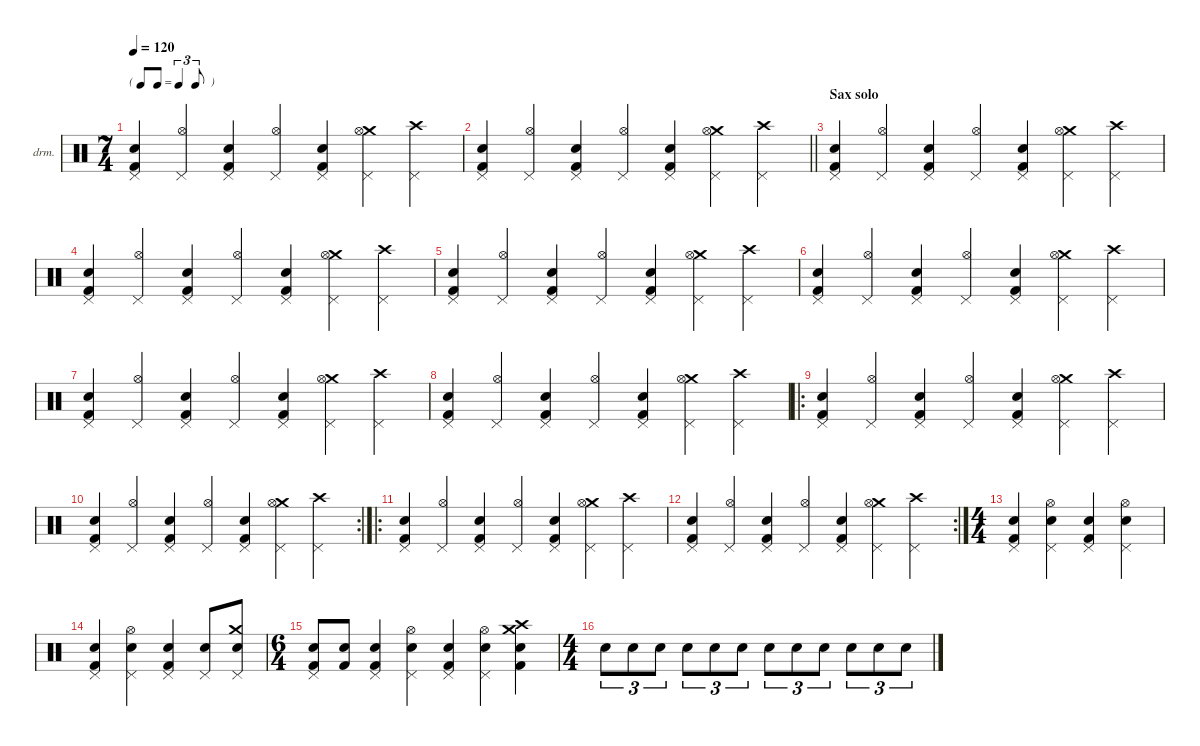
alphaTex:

\defaultSystemsLayout 4
\hideDynamics
\bracketExtendMode nobrackets
\firstSystemTrackNameOrientation horizontal
\otherSystemsTrackNameOrientation horizontal
\track ("Percussions" "drm.") {instrument percussion}
\staff {score}
\articulation defaults
\ts (7 4)
\beaming (8 6 4 4)
\tf triplet8th
\tempo 120
\clef neutral
\ks c
("Kick (hit) 2" "Snare (hit) 2" "Pedal Hi-Hat (hit)").4{dy f beam Up} ("Hi-Hat (open)" "Pedal Hi-Hat (hit)").4{beam Up} ("Kick (hit) 2" "Snare (hit) 2" "Pedal Hi-Hat (hit)").4{beam Up} ("Hi-Hat (open)" "Pedal Hi-Hat (hit)").4{beam Up} ("Kick (hit) 2" "Snare (hit) 2" "Pedal Hi-Hat (hit)").4{beam Up} ("Crash medium (hit)" "Hi-Hat (open)" "Pedal Hi-Hat (hit)").4{beam Down} ("Crash high (hit)" "Pedal Hi-Hat (hit)").4{beam Down} |
\barLineRight lightlight
("Kick (hit) 2" "Snare (hit) 2" "Pedal Hi-Hat (hit)").4{beam Up} ("Hi-Hat (open)" "Pedal Hi-Hat (hit)").4{beam Up} ("Kick (hit) 2" "Snare (hit) 2" "Pedal Hi-Hat (hit)").4{beam Up} ("Hi-Hat (open)" "Pedal Hi-Hat (hit)").4{beam Up} ("Kick (hit) 2" "Snare (hit) 2" "Pedal Hi-Hat (hit)").4{beam Up} ("Crash medium (hit)" "Hi-Hat (open)" "Pedal Hi-Hat (hit)").4{beam Down} ("Crash high (hit)" "Pedal Hi-Hat (hit)").4{beam Down} |
\section ("" "Sax solo")
("Kick (hit) 2" "Snare (hit) 2" "Pedal Hi-Hat (hit)").4{beam Up} ("Hi-Hat (open)" "Pedal Hi-Hat (hit)").4{beam Up} ("Kick (hit) 2" "Snare (hit) 2" "Pedal Hi-Hat (hit)").4{beam Up} ("Hi-Hat (open)" "Pedal Hi-Hat (hit)").4{beam Up} ("Kick (hit) 2" "Snare (hit) 2" "Pedal Hi-Hat (hit)").4{beam Up} ("Crash medium (hit)" "Hi-Hat (open)" "Pedal Hi-Hat (hit)").4{beam Down} ("Crash high (hit)" "Pedal Hi-Hat (hit)").4{beam Down} |
("Kick (hit) 2" "Snare (hit) 2" "Pedal Hi-Hat (hit)").4{beam Up} ("Hi-Hat (open)" "Pedal Hi-Hat (hit)").4{beam Up} ("Kick (hit) 2" "Snare (hit) 2" "Pedal Hi-Hat (hit)").4{beam Up} ("Hi-Hat (open)" "Pedal Hi-Hat (hit)").4{beam Up} ("Kick (hit) 2" "Snare (hit) 2" "Pedal Hi-Hat (hit)").4{beam Up} ("Crash medium (hit)" "Hi-Hat (open)" "Pedal Hi-Hat (hit)").4{beam Down} ("Crash high (hit)" "Pedal Hi-Hat (hit)").4{beam Down} |
("Kick (hit) 2" "Snare (hit) 2" "Pedal Hi-Hat (hit)").4{beam Up} ("Hi-Hat (open)" "Pedal Hi-Hat (hit)").4{beam Up} ("Kick (hit) 2" "Snare (hit) 2" "Pedal Hi-Hat (hit)").4{beam Up} ("Hi-Hat (open)" "Pedal Hi-Hat (hit)").4{beam Up} ("Kick (hit) 2" "Snare (hit) 2" "Pedal Hi-Hat (hit)").4{beam Up} ("Crash medium (hit)" "Hi-Hat (open)" "Pedal Hi-Hat (hit)").4{beam Down} ("Crash high (hit)" "Pedal Hi-Hat (hit)").4{beam Down} |
("Kick (hit) 2" "Snare (hit) 2" "Pedal Hi-Hat (hit)").4{beam Up} ("Hi-Hat (open)" "Pedal Hi-Hat (hit)").4{beam Up} ("Kick (hit) 2" "Snare (hit) 2" "Pedal Hi-Hat (hit)").4{beam Up} ("Hi-Hat (open)" "Pedal Hi-Hat (hit)").4{beam Up} ("Kick (hit) 2" "Snare (hit) 2" "Pedal Hi-Hat (hit)").4{beam Up} ("Crash medium (hit)" "Hi-Hat (open)" "Pedal Hi-Hat (hit)").4{beam Down} ("Crash high (hit)" "Pedal Hi-Hat (hit)").4{beam Down} |
("Kick (hit) 2" "Snare (hit) 2" "Pedal Hi-Hat (hit)").4{beam Up} ("Hi-Hat (open)" "Pedal Hi-Hat (hit)").4{beam Up} ("Kick (hit) 2" "Snare (hit) 2" "Pedal Hi-Hat (hit)").4{beam Up} ("Hi-Hat (open)" "Pedal Hi-Hat (hit)").4{beam Up} ("Kick (hit) 2" "Snare (hit) 2" "Pedal Hi-Hat (hit)").4{beam Up} ("Crash medium (hit)" "Hi-Hat (open)" "Pedal Hi-Hat (hit)").4{beam Down} ("Crash high (hit)" "Pedal Hi-Hat (hit)").4{beam Down} |
("Kick (hit) 2" "Snare (hit) 2" "Pedal Hi-Hat (hit)").4{beam Up} ("Hi-Hat (open)" "Pedal Hi-Hat (hit)").4{beam Up} ("Kick (hit) 2" "Snare (hit) 2" "Pedal Hi-Hat (hit)").4{beam Up} ("Hi-Hat (open)" "Pedal Hi-Hat (hit)").4{beam Up} ("Kick (hit) 2" "Snare (hit) 2" "Pedal Hi-Hat (hit)").4{beam Up} ("Crash medium (hit)" "Hi-Hat (open)" "Pedal Hi-Hat (hit)").4{beam Down} ("Crash high (hit)" "Pedal Hi-Hat (hit)").4{beam Down} |
\ro
("Kick (hit) 2" "Snare (hit) 2" "Pedal Hi-Hat (hit)").4{beam Up} ("Hi-Hat (open)" "Pedal Hi-Hat (hit)").4{beam Up} ("Kick (hit) 2" "Snare (hit) 2" "Pedal Hi-Hat (hit)").4{beam Up} ("Hi-Hat (open)" "Pedal Hi-Hat (hit)").4{beam Up} ("Kick (hit) 2" "Snare (hit) 2" "Pedal Hi-Hat (hit)").4{beam Up} ("Crash medium (hit)" "Hi-Hat (open)" "Pedal Hi-Hat (hit)").4{beam Down} ("Crash high (hit)" "Pedal Hi-Hat (hit)").4{beam Down} |
\rc 2
("Kick (hit) 2" "Snare (hit) 2" "Pedal Hi-Hat (hit)").4{beam Up} ("Hi-Hat (open)" "Pedal Hi-Hat (hit)").4{beam Up} ("Kick (hit) 2" "Snare (hit) 2" "Pedal Hi-Hat (hit)").4{beam Up} ("Hi-Hat (open)" "Pedal Hi-Hat (hit)").4{beam Up} ("Kick (hit) 2" "Snare (hit) 2" "Pedal Hi-Hat (hit)").4{beam Up} ("Crash medium (hit)" "Hi-Hat (open)" "Pedal Hi-Hat (hit)").4{beam Down} ("Crash high (hit)" "Pedal Hi-Hat (hit)").4{beam Down} |
\ro
("Kick (hit) 2" "Snare (hit) 2" "Pedal Hi-Hat (hit)").4{beam Up} ("Hi-Hat (open)" "Pedal Hi-Hat (hit)").4{beam Up} ("Kick (hit) 2" "Snare (hit) 2" "Pedal Hi-Hat (hit)").4{beam Up} ("Hi-Hat (open)" "Pedal Hi-Hat (hit)").4{beam Up} ("Kick (hit) 2" "Snare (hit) 2" "Pedal Hi-Hat (hit)").4{beam Up} ("Crash medium (hit)" "Hi-Hat (open)" "Pedal Hi-Hat (hit)").4{beam Down} ("Crash high (hit)" "Pedal Hi-Hat (hit)").4{beam Down} |
\rc 2
("Kick (hit) 2" "Snare (hit) 2" "Pedal Hi-Hat (hit)").4{beam Up} ("Hi-Hat (open)" "Pedal Hi-Hat (hit)").4{beam Up} ("Kick (hit) 2" "Snare (hit) 2" "Pedal Hi-Hat (hit)").4{beam Up} ("Hi-Hat (open)" "Pedal Hi-Hat (hit)").4{beam Up} ("Kick (hit) 2" "Snare (hit) 2" "Pedal Hi-Hat (hit)").4{beam Up} ("Crash medium (hit)" "Hi-Hat (open)" "Pedal Hi-Hat (hit)").4{beam Down} ("Crash high (hit)" "Pedal Hi-Hat (hit)").4{beam Down} |
\ts (4 4)
\beaming (8 2 2 2 2)
("Kick (hit) 2" "Snare (hit) 2" "Pedal Hi-Hat (hit)").4{beam Up} ("Hi-Hat (open)" "Snare (hit) 2" "Pedal Hi-Hat (hit)").4{beam Down} ("Kick (hit) 2" "Snare (hit) 2" "Pedal Hi-Hat (hit)").4{beam Up} ("Hi-Hat (open)" "Snare (hit) 2" "Pedal Hi-Hat (hit)").4{beam Down} |
("Kick (hit) 2" "Snare (hit) 2" "Pedal Hi-Hat (hit)").4{beam Up} ("Hi-Hat (open)" "Snare (hit) 2" "Pedal Hi-Hat (hit)").4{beam Down} ("Kick (hit) 2" "Snare (hit) 2" "Pedal Hi-Hat (hit)").4{beam Up} ("Snare (hit) 2" "Pedal Hi-Hat (hit)").8{beam Up} ("Crash medium (hit)" "Snare (hit) 2" "Pedal Hi-Hat (hit)").8{beam Up} |
\ts (6 4)
\beaming (8 6 6)
("Kick (hit) 2" "Snare (hit) 2" "Pedal Hi-Hat (hit)").8{beam Up} ("Snare (hit) 2" "Kick (hit) 2").8{beam Up} ("Kick (hit) 2" "Snare (hit) 2" "Pedal Hi-Hat (hit)").4{beam Up} ("Hi-Hat (open)" "Snare (hit) 2" "Pedal Hi-Hat (hit)").4{beam Down} ("Kick (hit) 2" "Snare (hit) 2" "Pedal Hi-Hat (hit)").4{beam Up} ("Hi-Hat (open)" "Snare (hit) 2" "Pedal Hi-Hat (hit)").4{beam Down} ("Kick (hit) 2" "Crash high (hit)" "Crash medium (hit)" "Snare (hit) 2").4{beam Down} |
\ts (4 4)
\beaming (8 2 2 2 2)
"Snare (hit) 2".8{tu (3 2) beam Down} "Snare (hit) 2".8{tu (3 2) beam Down} "Snare (hit) 2".8{tu (3 2) beam Down} "Snare (hit) 2".8{tu (3 2) beam Down} "Snare (hit) 2".8{tu (3 2) beam Down} "Snare (hit) 2".8{tu (3 2) beam Down} "Snare (hit) 2".8{tu (3 2) beam Down} "Snare (hit) 2".8{tu (3 2) beam Down} "Snare (hit) 2".8{tu (3 2) beam Down} "Snare (hit) 2".8{tu (3 2) beam Down} "Snare (hit) 2".8{tu (3 2) beam Down} "Snare (hit) 2".8{tu (3 2) beam Down}
